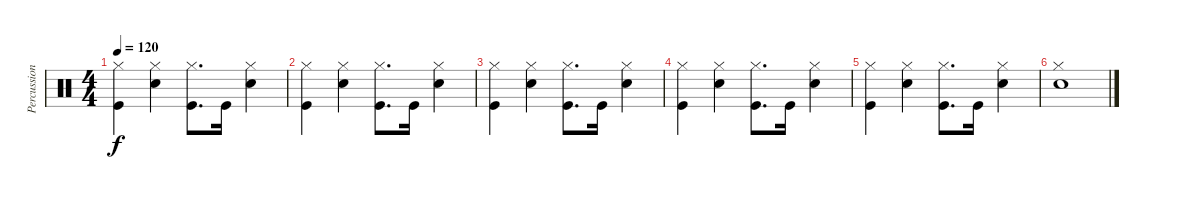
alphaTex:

\track ("Percussion" "Percussion") {instrument percussion}
\staff {score}
\articulation defaults
\ts (4 4)
\tempo 120
\clef neutral
\ks c
("Hi-Hat (closed)" "Kick (hit)").4{dy f} ("Hi-Hat (closed)" "Snare (hit) 2").4 ("Hi-Hat (closed)" "Kick (hit)").8{d} "Kick (hit)".16 ("Hi-Hat (closed)" "Snare (hit) 2").4 |
("Hi-Hat (closed)" "Kick (hit)").4 ("Hi-Hat (closed)" "Snare (hit) 2").4 ("Hi-Hat (closed)" "Kick (hit)").8{d} "Kick (hit)".16 ("Hi-Hat (closed)" "Snare (hit) 2").4 |
("Hi-Hat (closed)" "Kick (hit)").4 ("Hi-Hat (closed)" "Snare (hit) 2").4 ("Hi-Hat (closed)" "Kick (hit)").8{d} "Kick (hit)".16 ("Hi-Hat (closed)" "Snare (hit) 2").4 |
("Hi-Hat (closed)" "Kick (hit)").4 ("Hi-Hat (closed)" "Snare (hit) 2").4 ("Hi-Hat (closed)" "Kick (hit)").8{d} "Kick (hit)".16 ("Hi-Hat (closed)" "Snare (hit) 2").4 |
("Hi-Hat (closed)" "Kick (hit)").4 ("Hi-Hat (closed)" "Snare (hit) 2").4 ("Hi-Hat (closed)" "Kick (hit)").8{d} "Kick (hit)".16 ("Hi-Hat (closed)" "Snare (hit) 2").4 |
("Hi-Hat (closed)" "Snare (hit) 2").1
